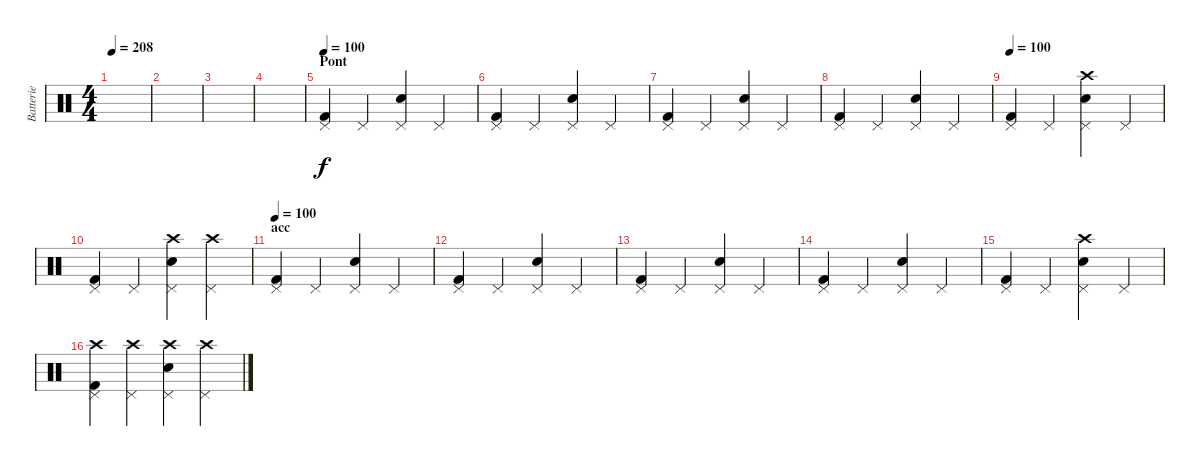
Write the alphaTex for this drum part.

\track ("Batterie" "Batterie") {instrument percussion}
\staff {score}
\articulation defaults
\ts (4 4)
\tempo 208
\clef neutral
\ks c
|
|
|
|
\section ("" "Pont")
\tempo 100
("Pedal Hi-Hat (hit)" "Kick (hit) 2").4 "Pedal Hi-Hat (hit)".4 ("Pedal Hi-Hat (hit)" "Snare (hit) 2").4 "Pedal Hi-Hat (hit)".4 |
("Pedal Hi-Hat (hit)" "Kick (hit) 2").4 "Pedal Hi-Hat (hit)".4 ("Pedal Hi-Hat (hit)" "Snare (hit) 2").4 "Pedal Hi-Hat (hit)".4 |
("Pedal Hi-Hat (hit)" "Kick (hit) 2").4 "Pedal Hi-Hat (hit)".4 ("Pedal Hi-Hat (hit)" "Snare (hit) 2").4 "Pedal Hi-Hat (hit)".4 |
("Pedal Hi-Hat (hit)" "Kick (hit) 2").4 "Pedal Hi-Hat (hit)".4 ("Pedal Hi-Hat (hit)" "Snare (hit) 2").4 "Pedal Hi-Hat (hit)".4 |
\tempo 100
("Pedal Hi-Hat (hit)" "Kick (hit) 2").4 "Pedal Hi-Hat (hit)".4 ("Crash high (hit)" "Pedal Hi-Hat (hit)" "Snare (hit) 2").4 "Pedal Hi-Hat (hit)".4 |
("Pedal Hi-Hat (hit)" "Kick (hit) 2").4 "Pedal Hi-Hat (hit)".4 ("Crash high (hit)" "Pedal Hi-Hat (hit)" "Snare (hit) 2").4 ("Crash high (hit)" "Pedal Hi-Hat (hit)").4 |
\section ("" "acc")
\tempo 100
("Pedal Hi-Hat (hit)" "Kick (hit) 2").4 "Pedal Hi-Hat (hit)".4 ("Pedal Hi-Hat (hit)" "Snare (hit) 2").4 "Pedal Hi-Hat (hit)".4 |
("Pedal Hi-Hat (hit)" "Kick (hit) 2").4 "Pedal Hi-Hat (hit)".4 ("Pedal Hi-Hat (hit)" "Snare (hit) 2").4 "Pedal Hi-Hat (hit)".4 |
("Pedal Hi-Hat (hit)" "Kick (hit) 2").4 "Pedal Hi-Hat (hit)".4 ("Pedal Hi-Hat (hit)" "Snare (hit) 2").4 "Pedal Hi-Hat (hit)".4 |
("Pedal Hi-Hat (hit)" "Kick (hit) 2").4 "Pedal Hi-Hat (hit)".4 ("Pedal Hi-Hat (hit)" "Snare (hit) 2").4 "Pedal Hi-Hat (hit)".4 |
("Pedal Hi-Hat (hit)" "Kick (hit) 2").4 "Pedal Hi-Hat (hit)".4 ("Crash high (hit)" "Pedal Hi-Hat (hit)" "Snare (hit) 2").4 "Pedal Hi-Hat (hit)".4 |
("Crash high (hit)" "Pedal Hi-Hat (hit)" "Kick (hit) 2").4 ("Crash high (hit)" "Pedal Hi-Hat (hit)").4 ("Crash high (hit)" "Pedal Hi-Hat (hit)" "Snare (hit) 2").4 ("Crash high (hit)" "Pedal Hi-Hat (hit)").4
